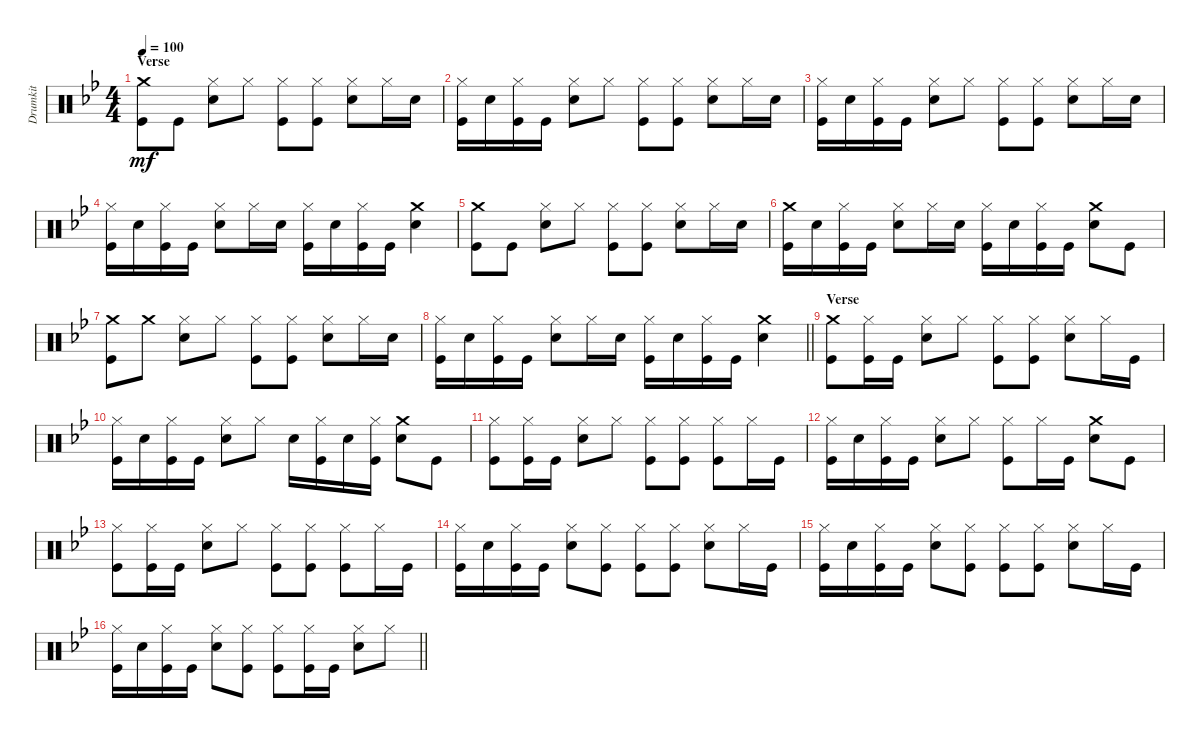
\track ("Drumkit" "Drumkit") {instrument percussion}
\staff {score}
\articulation defaults
\ts (4 4)
\section ("" "Verse")
\tempo 100
\clef neutral
\ks bb
("Crash medium (hit)" "Kick (hit)").8{dy mf} "Kick (hit)".8 ("Snare (hit) 2" "Hi-Hat (closed)").8 "Hi-Hat (closed)".8 ("Hi-Hat (closed)" "Kick (hit)").8 ("Kick (hit)" "Hi-Hat (closed)").8 ("Snare (hit) 2" "Hi-Hat (closed)").8 "Hi-Hat (closed)".16 "Snare (hit) 2".16 |
("Kick (hit)" "Hi-Hat (closed)").16 "Snare (hit) 2".16 ("Kick (hit)" "Hi-Hat (closed)").16 "Kick (hit)".16 ("Snare (hit) 2" "Hi-Hat (closed)").8 "Hi-Hat (closed)".8 ("Kick (hit)" "Hi-Hat (closed)").8 ("Kick (hit)" "Hi-Hat (closed)").8 ("Snare (hit) 2" "Hi-Hat (closed)").8 "Hi-Hat (closed)".16 "Snare (hit) 2".16 |
("Kick (hit)" "Hi-Hat (closed)").16 "Snare (hit) 2".16 ("Kick (hit)" "Hi-Hat (closed)").16 "Kick (hit)".16 ("Snare (hit) 2" "Hi-Hat (closed)").8 "Hi-Hat (closed)".8 ("Kick (hit)" "Hi-Hat (closed)").8 ("Kick (hit)" "Hi-Hat (closed)").8 ("Snare (hit) 2" "Hi-Hat (closed)").8 "Hi-Hat (closed)".16 "Snare (hit) 2".16 |
("Kick (hit)" "Hi-Hat (closed)").16 "Snare (hit) 2".16 ("Kick (hit)" "Hi-Hat (closed)").16 "Kick (hit)".16 ("Snare (hit) 2" "Hi-Hat (closed)").8 "Hi-Hat (closed)".16 "Snare (hit) 2".16 ("Kick (hit)" "Hi-Hat (closed)").16 "Snare (hit) 2".16 ("Kick (hit)" "Hi-Hat (closed)").16 "Kick (hit)".16 ("Snare (hit) 2" "Crash medium (hit)").4 |
("Crash medium (hit)" "Kick (hit)").8 "Kick (hit)".8 ("Snare (hit) 2" "Hi-Hat (closed)").8 "Hi-Hat (closed)".8 ("Hi-Hat (closed)" "Kick (hit)").8 ("Kick (hit)" "Hi-Hat (closed)").8 ("Snare (hit) 2" "Hi-Hat (closed)").8 "Hi-Hat (closed)".16 "Snare (hit) 2".16 |
("Kick (hit)" "Crash medium (hit)").16 "Snare (hit) 2".16 ("Kick (hit)" "Hi-Hat (closed)").16 "Kick (hit)".16 ("Snare (hit) 2" "Hi-Hat (closed)").8 "Hi-Hat (closed)".16 "Snare (hit) 2".16 ("Kick (hit)" "Hi-Hat (closed)").16 "Snare (hit) 2".16 ("Kick (hit)" "Hi-Hat (closed)").16 "Kick (hit)".16 ("Crash medium (hit)" "Snare (hit) 2").8 "Kick (hit)".8 |
("Kick (hit)" "Crash medium (hit)").8 "Crash medium (hit)".8 ("Snare (hit) 2" "Hi-Hat (closed)").8 "Hi-Hat (closed)".8 ("Hi-Hat (closed)" "Kick (hit)").8 ("Kick (hit)" "Hi-Hat (closed)").8 ("Snare (hit) 2" "Hi-Hat (closed)").8 "Hi-Hat (closed)".16 "Snare (hit) 2".16 |
\barLineRight lightlight
("Kick (hit)" "Hi-Hat (closed)").16 "Snare (hit) 2".16 ("Kick (hit)" "Hi-Hat (closed)").16 "Kick (hit)".16 ("Snare (hit) 2" "Hi-Hat (closed)").8 "Hi-Hat (closed)".16 "Snare (hit) 2".16 ("Kick (hit)" "Hi-Hat (closed)").16 "Snare (hit) 2".16 ("Kick (hit)" "Hi-Hat (closed)").16 "Kick (hit)".16 ("Snare (hit) 2" "Crash medium (hit)").4 |
\section ("" "Verse")
("Crash medium (hit)" "Kick (hit)").8 ("Hi-Hat (closed)" "Kick (hit)").16 "Kick (hit)".16 ("Snare (hit) 2" "Hi-Hat (closed)").8 "Hi-Hat (closed)".8 ("Kick (hit)" "Hi-Hat (closed)").8 ("Kick (hit)" "Hi-Hat (closed)").8 ("Hi-Hat (closed)" "Snare (hit) 2").8 "Hi-Hat (closed)".16 "Kick (hit)".16 |
("Kick (hit)" "Hi-Hat (closed)").16 "Snare (hit) 2".16 ("Kick (hit)" "Hi-Hat (closed)").16 "Kick (hit)".16 ("Snare (hit) 2" "Hi-Hat (closed)").8 "Hi-Hat (closed)".8 "Snare (hit) 2".16 ("Kick (hit)" "Hi-Hat (closed)").16 "Snare (hit) 2".16 ("Kick (hit)" "Hi-Hat (closed)").16 ("Snare (hit) 2" "Crash medium (hit)").8 "Kick (hit)".8 |
("Kick (hit)" "Hi-Hat (closed)").8 ("Hi-Hat (closed)" "Kick (hit)").16 "Kick (hit)".16 ("Snare (hit) 2" "Hi-Hat (closed)").8 "Hi-Hat (closed)".8 ("Hi-Hat (closed)" "Kick (hit)").8 ("Hi-Hat (closed)" "Kick (hit)").8 ("Kick (hit)" "Hi-Hat (closed)").8 "Hi-Hat (closed)".16 "Kick (hit)".16 |
("Kick (hit)" "Hi-Hat (closed)").16 "Snare (hit) 2".16 ("Kick (hit)" "Hi-Hat (closed)").16 "Kick (hit)".16 ("Snare (hit) 2" "Hi-Hat (closed)").8 "Hi-Hat (closed)".8 ("Kick (hit)" "Hi-Hat (closed)").8 "Hi-Hat (closed)".16 "Kick (hit)".16 ("Crash medium (hit)" "Snare (hit) 2").8 "Kick (hit)".8 |
("Kick (hit)" "Hi-Hat (closed)").8 ("Hi-Hat (closed)" "Kick (hit)").16 "Kick (hit)".16 ("Snare (hit) 2" "Hi-Hat (closed)").8 "Hi-Hat (closed)".8 ("Hi-Hat (closed)" "Kick (hit)").8 ("Hi-Hat (closed)" "Kick (hit)").8 ("Kick (hit)" "Hi-Hat (closed)").8 "Hi-Hat (closed)".16 "Kick (hit)".16 |
("Kick (hit)" "Hi-Hat (closed)").16 "Snare (hit) 2".16 ("Kick (hit)" "Hi-Hat (closed)").16 "Kick (hit)".16 ("Snare (hit) 2" "Hi-Hat (closed)").8 ("Hi-Hat (closed)" "Kick (hit)").8 ("Hi-Hat (closed)" "Kick (hit)").8 ("Kick (hit)" "Hi-Hat (closed)").8 ("Hi-Hat (closed)" "Snare (hit) 2").8 "Hi-Hat (closed)".16 "Kick (hit)".16 |
("Kick (hit)" "Hi-Hat (closed)").16 "Snare (hit) 2".16 ("Kick (hit)" "Hi-Hat (closed)").16 "Kick (hit)".16 ("Snare (hit) 2" "Hi-Hat (closed)").8 ("Hi-Hat (closed)" "Kick (hit)").8 ("Hi-Hat (closed)" "Kick (hit)").8 ("Kick (hit)" "Hi-Hat (closed)").8 ("Hi-Hat (closed)" "Snare (hit) 2").8 "Hi-Hat (closed)".16 "Kick (hit)".16 |
\barLineRight lightlight
("Kick (hit)" "Hi-Hat (closed)").16 "Snare (hit) 2".16 ("Kick (hit)" "Hi-Hat (closed)").16 "Kick (hit)".16 ("Snare (hit) 2" "Hi-Hat (closed)").8 ("Hi-Hat (closed)" "Kick (hit)").8 ("Kick (hit)" "Hi-Hat (closed)").8 ("Hi-Hat (closed)" "Kick (hit)").16 "Kick (hit)".16 ("Snare (hit) 2" "Hi-Hat (closed)").8 "Hi-Hat (closed)".8
